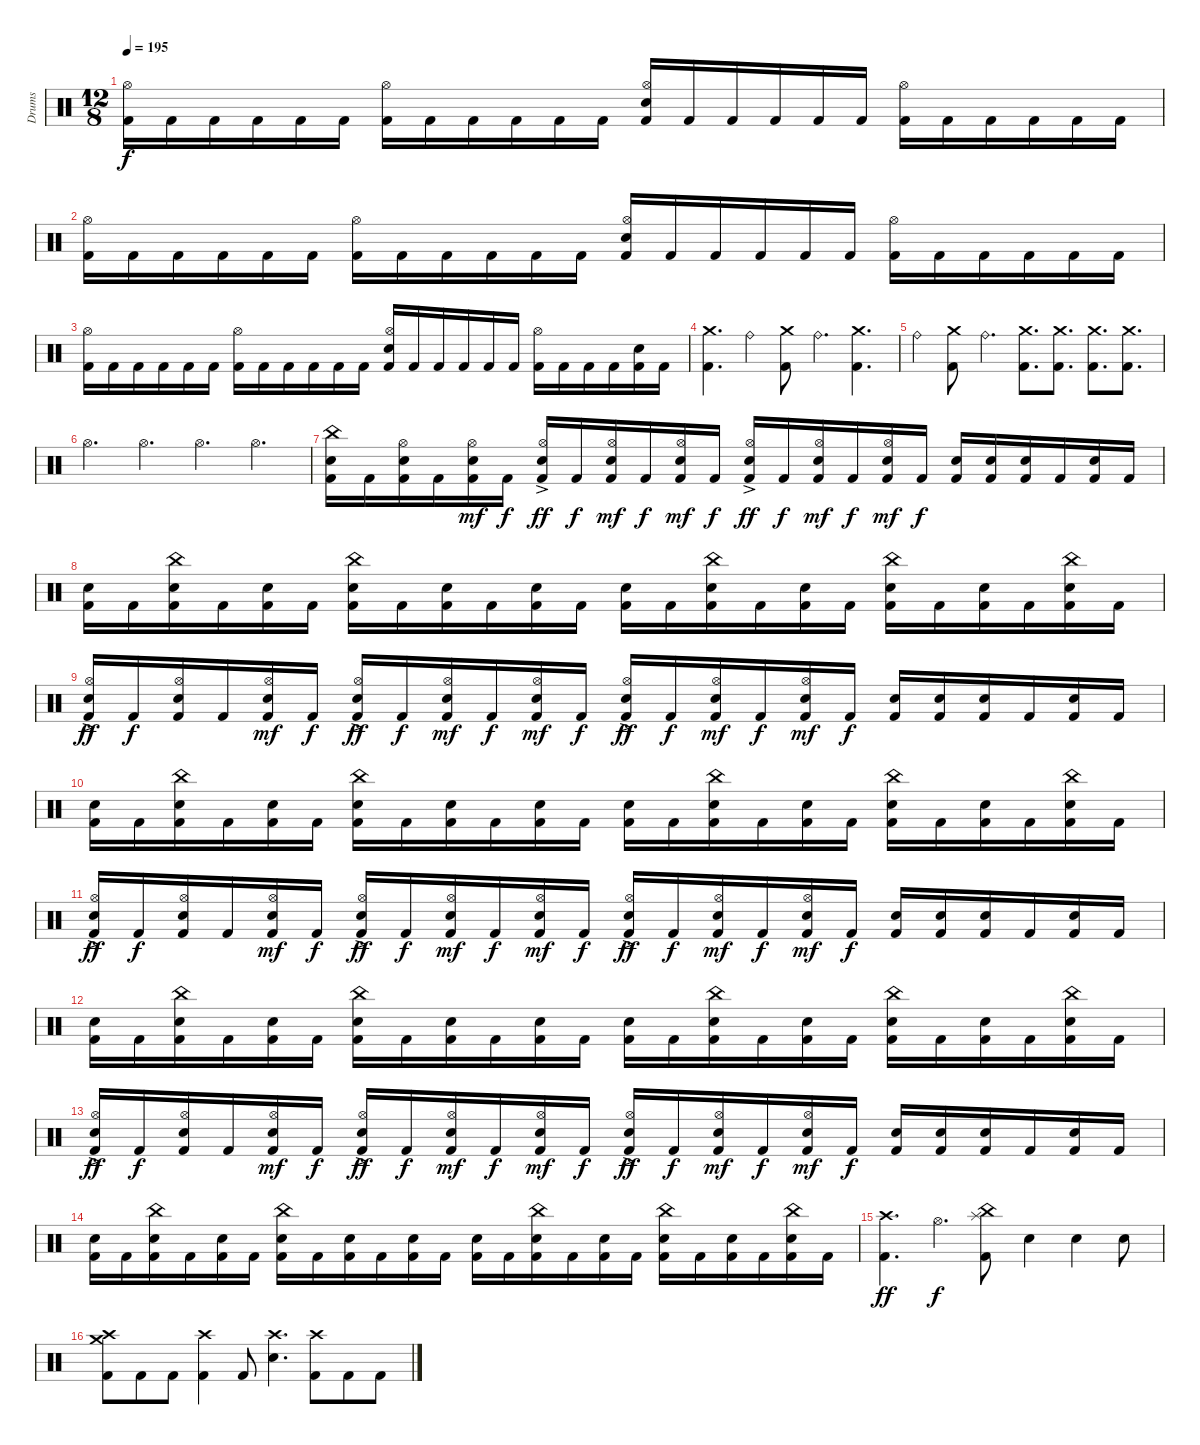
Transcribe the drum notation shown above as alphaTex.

\track ("Drums" "Drums") {instrument percussion}
\staff {score}
\articulation defaults
\ts (12 8)
\tempo 195
\clef neutral
\ks c
("Kick (hit) 2" "Hi-Hat (open)").16{dy f} "Kick (hit) 2".16 "Kick (hit) 2".16 "Kick (hit) 2".16 "Kick (hit) 2".16 "Kick (hit) 2".16 ("Kick (hit) 2" "Hi-Hat (open)").16 "Kick (hit) 2".16 "Kick (hit) 2".16 "Kick (hit) 2".16 "Kick (hit) 2".16 "Kick (hit) 2".16 ("Kick (hit) 2" "Electric Snare (hit)" "Hi-Hat (open)").16 "Kick (hit) 2".16 "Kick (hit) 2".16 "Kick (hit) 2".16 "Kick (hit) 2".16 "Kick (hit) 2".16 ("Kick (hit) 2" "Hi-Hat (open)").16 "Kick (hit) 2".16 "Kick (hit) 2".16 "Kick (hit) 2".16 "Kick (hit) 2".16 "Kick (hit) 2".16 |
("Kick (hit) 2" "Hi-Hat (open)").16 "Kick (hit) 2".16 "Kick (hit) 2".16 "Kick (hit) 2".16 "Kick (hit) 2".16 "Kick (hit) 2".16 ("Kick (hit) 2" "Hi-Hat (open)").16 "Kick (hit) 2".16 "Kick (hit) 2".16 "Kick (hit) 2".16 "Kick (hit) 2".16 "Kick (hit) 2".16 ("Kick (hit) 2" "Electric Snare (hit)" "Hi-Hat (open)").16 "Kick (hit) 2".16 "Kick (hit) 2".16 "Kick (hit) 2".16 "Kick (hit) 2".16 "Kick (hit) 2".16 ("Kick (hit) 2" "Hi-Hat (open)").16 "Kick (hit) 2".16 "Kick (hit) 2".16 "Kick (hit) 2".16 "Kick (hit) 2".16 "Kick (hit) 2".16 |
("Kick (hit) 2" "Hi-Hat (open)").16 "Kick (hit) 2".16 "Kick (hit) 2".16 "Kick (hit) 2".16 "Kick (hit) 2".16 "Kick (hit) 2".16 ("Kick (hit) 2" "Hi-Hat (open)").16 "Kick (hit) 2".16 "Kick (hit) 2".16 "Kick (hit) 2".16 "Kick (hit) 2".16 "Kick (hit) 2".16 ("Kick (hit) 2" "Electric Snare (hit)" "Hi-Hat (open)").16 "Kick (hit) 2".16 "Kick (hit) 2".16 "Kick (hit) 2".16 "Kick (hit) 2".16 "Kick (hit) 2".16 ("Kick (hit) 2" "Hi-Hat (open)").16 "Kick (hit) 2".16 "Kick (hit) 2".16 "Kick (hit) 2".16 ("Kick (hit) 2" "Electric Snare (hit)").16 "Kick (hit) 2".16 |
("Kick (hit) 2" "Crash medium (hit)").4{d} "Ride (bell)".4 ("Kick (hit) 2" "Crash medium (hit)").8 "Ride (bell)".4{d} ("Kick (hit) 2" "Crash medium (hit)").4{d} |
"Ride (bell)".4 ("Kick (hit) 2" "Crash medium (hit)").8 "Ride (bell)".4{d} ("Kick (hit) 2" "Crash medium (hit)").8{d} ("Kick (hit) 2" "Crash medium (hit)").8{d} ("Kick (hit) 2" "Crash medium (hit)").8{d} ("Kick (hit) 2" "Crash medium (hit)").8{d} |
"Hi-Hat (open)".4{d} "Hi-Hat (open)".4{d} "Hi-Hat (open)".4{d} "Hi-Hat (open)".4{d} |
("Kick (hit) 2" "Electric Snare (hit)" "China (hit)").16 "Kick (hit) 2".16 ("Kick (hit) 2" "Electric Snare (hit)" "Hi-Hat (open)").16 "Kick (hit) 2".16 ("Kick (hit) 2" "Electric Snare (hit)" "Hi-Hat (open)").16{dy mf} "Kick (hit) 2".16{dy f} ("Kick (hit) 2" "Electric Snare (hit)" "Hi-Hat (open)"{ac}).16{dy ff} "Kick (hit) 2".16{dy f} ("Kick (hit) 2" "Electric Snare (hit)" "Hi-Hat (open)").16{dy mf} "Kick (hit) 2".16{dy f} ("Kick (hit) 2" "Electric Snare (hit)" "Hi-Hat (open)").16{dy mf} "Kick (hit) 2".16{dy f} ("Kick (hit) 2" "Electric Snare (hit)" "Hi-Hat (open)"{ac}).16{dy ff} "Kick (hit) 2".16{dy f} ("Kick (hit) 2" "Electric Snare (hit)" "Hi-Hat (open)").16{dy mf} "Kick (hit) 2".16{dy f} ("Kick (hit) 2" "Electric Snare (hit)" "Hi-Hat (open)").16{dy mf} "Kick (hit) 2".16{dy f} ("Kick (hit) 2" "Electric Snare (hit)").16 ("Kick (hit) 2" "Electric Snare (hit)").16 ("Kick (hit) 2" "Electric Snare (hit)").16 "Kick (hit) 2".16 ("Kick (hit) 2" "Electric Snare (hit)").16 "Kick (hit) 2".16 |
("Kick (hit) 2" "Electric Snare (hit)").16 "Kick (hit) 2".16 ("Kick (hit) 2" "Electric Snare (hit)" "China (hit)").16 "Kick (hit) 2".16 ("Kick (hit) 2" "Electric Snare (hit)").16 "Kick (hit) 2".16 ("Kick (hit) 2" "Electric Snare (hit)" "China (hit)").16 "Kick (hit) 2".16 ("Kick (hit) 2" "Electric Snare (hit)").16 "Kick (hit) 2".16 ("Kick (hit) 2" "Electric Snare (hit)").16 "Kick (hit) 2".16 ("Kick (hit) 2" "Electric Snare (hit)").16 "Kick (hit) 2".16 ("Kick (hit) 2" "Electric Snare (hit)" "China (hit)").16 "Kick (hit) 2".16 ("Kick (hit) 2" "Electric Snare (hit)").16 "Kick (hit) 2".16 ("Kick (hit) 2" "Electric Snare (hit)" "China (hit)").16 "Kick (hit) 2".16 ("Kick (hit) 2" "Electric Snare (hit)").16 "Kick (hit) 2".16 ("Kick (hit) 2" "Electric Snare (hit)" "China (hit)").16 "Kick (hit) 2".16 |
("Kick (hit) 2" "Electric Snare (hit)" "Hi-Hat (open)"{ac}).16{dy ff} "Kick (hit) 2".16{dy f} ("Kick (hit) 2" "Electric Snare (hit)" "Hi-Hat (open)").16 "Kick (hit) 2".16 ("Kick (hit) 2" "Electric Snare (hit)" "Hi-Hat (open)").16{dy mf} "Kick (hit) 2".16{dy f} ("Kick (hit) 2" "Electric Snare (hit)" "Hi-Hat (open)"{ac}).16{dy ff} "Kick (hit) 2".16{dy f} ("Kick (hit) 2" "Electric Snare (hit)" "Hi-Hat (open)").16{dy mf} "Kick (hit) 2".16{dy f} ("Kick (hit) 2" "Electric Snare (hit)" "Hi-Hat (open)").16{dy mf} "Kick (hit) 2".16{dy f} ("Kick (hit) 2" "Electric Snare (hit)" "Hi-Hat (open)"{ac}).16{dy ff} "Kick (hit) 2".16{dy f} ("Kick (hit) 2" "Electric Snare (hit)" "Hi-Hat (open)").16{dy mf} "Kick (hit) 2".16{dy f} ("Kick (hit) 2" "Electric Snare (hit)" "Hi-Hat (open)").16{dy mf} "Kick (hit) 2".16{dy f} ("Kick (hit) 2" "Electric Snare (hit)").16 ("Kick (hit) 2" "Electric Snare (hit)").16 ("Kick (hit) 2" "Electric Snare (hit)").16 "Kick (hit) 2".16 ("Kick (hit) 2" "Electric Snare (hit)").16 "Kick (hit) 2".16 |
("Kick (hit) 2" "Electric Snare (hit)").16 "Kick (hit) 2".16 ("Kick (hit) 2" "Electric Snare (hit)" "China (hit)").16 "Kick (hit) 2".16 ("Kick (hit) 2" "Electric Snare (hit)").16 "Kick (hit) 2".16 ("Kick (hit) 2" "Electric Snare (hit)" "China (hit)").16 "Kick (hit) 2".16 ("Kick (hit) 2" "Electric Snare (hit)").16 "Kick (hit) 2".16 ("Kick (hit) 2" "Electric Snare (hit)").16 "Kick (hit) 2".16 ("Kick (hit) 2" "Electric Snare (hit)").16 "Kick (hit) 2".16 ("Kick (hit) 2" "Electric Snare (hit)" "China (hit)").16 "Kick (hit) 2".16 ("Kick (hit) 2" "Electric Snare (hit)").16 "Kick (hit) 2".16 ("Kick (hit) 2" "Electric Snare (hit)" "China (hit)").16 "Kick (hit) 2".16 ("Kick (hit) 2" "Electric Snare (hit)").16 "Kick (hit) 2".16 ("Kick (hit) 2" "Electric Snare (hit)" "China (hit)").16 "Kick (hit) 2".16 |
("Kick (hit) 2" "Electric Snare (hit)" "Hi-Hat (open)"{ac}).16{dy ff} "Kick (hit) 2".16{dy f} ("Kick (hit) 2" "Electric Snare (hit)" "Hi-Hat (open)").16 "Kick (hit) 2".16 ("Kick (hit) 2" "Electric Snare (hit)" "Hi-Hat (open)").16{dy mf} "Kick (hit) 2".16{dy f} ("Kick (hit) 2" "Electric Snare (hit)" "Hi-Hat (open)"{ac}).16{dy ff} "Kick (hit) 2".16{dy f} ("Kick (hit) 2" "Electric Snare (hit)" "Hi-Hat (open)").16{dy mf} "Kick (hit) 2".16{dy f} ("Kick (hit) 2" "Electric Snare (hit)" "Hi-Hat (open)").16{dy mf} "Kick (hit) 2".16{dy f} ("Kick (hit) 2" "Electric Snare (hit)" "Hi-Hat (open)"{ac}).16{dy ff} "Kick (hit) 2".16{dy f} ("Kick (hit) 2" "Electric Snare (hit)" "Hi-Hat (open)").16{dy mf} "Kick (hit) 2".16{dy f} ("Kick (hit) 2" "Electric Snare (hit)" "Hi-Hat (open)").16{dy mf} "Kick (hit) 2".16{dy f} ("Kick (hit) 2" "Electric Snare (hit)").16 ("Kick (hit) 2" "Electric Snare (hit)").16 ("Kick (hit) 2" "Electric Snare (hit)").16 "Kick (hit) 2".16 ("Kick (hit) 2" "Electric Snare (hit)").16 "Kick (hit) 2".16 |
("Kick (hit) 2" "Electric Snare (hit)").16 "Kick (hit) 2".16 ("Kick (hit) 2" "Electric Snare (hit)" "China (hit)").16 "Kick (hit) 2".16 ("Kick (hit) 2" "Electric Snare (hit)").16 "Kick (hit) 2".16 ("Kick (hit) 2" "Electric Snare (hit)" "China (hit)").16 "Kick (hit) 2".16 ("Kick (hit) 2" "Electric Snare (hit)").16 "Kick (hit) 2".16 ("Kick (hit) 2" "Electric Snare (hit)").16 "Kick (hit) 2".16 ("Kick (hit) 2" "Electric Snare (hit)").16 "Kick (hit) 2".16 ("Kick (hit) 2" "Electric Snare (hit)" "China (hit)").16 "Kick (hit) 2".16 ("Kick (hit) 2" "Electric Snare (hit)").16 "Kick (hit) 2".16 ("Kick (hit) 2" "Electric Snare (hit)" "China (hit)").16 "Kick (hit) 2".16 ("Kick (hit) 2" "Electric Snare (hit)").16 "Kick (hit) 2".16 ("Kick (hit) 2" "Electric Snare (hit)" "China (hit)").16 "Kick (hit) 2".16 |
("Kick (hit) 2" "Electric Snare (hit)" "Hi-Hat (open)"{ac}).16{dy ff} "Kick (hit) 2".16{dy f} ("Kick (hit) 2" "Electric Snare (hit)" "Hi-Hat (open)").16 "Kick (hit) 2".16 ("Kick (hit) 2" "Electric Snare (hit)" "Hi-Hat (open)").16{dy mf} "Kick (hit) 2".16{dy f} ("Kick (hit) 2" "Electric Snare (hit)" "Hi-Hat (open)"{ac}).16{dy ff} "Kick (hit) 2".16{dy f} ("Kick (hit) 2" "Electric Snare (hit)" "Hi-Hat (open)").16{dy mf} "Kick (hit) 2".16{dy f} ("Kick (hit) 2" "Electric Snare (hit)" "Hi-Hat (open)").16{dy mf} "Kick (hit) 2".16{dy f} ("Kick (hit) 2" "Electric Snare (hit)" "Hi-Hat (open)"{ac}).16{dy ff} "Kick (hit) 2".16{dy f} ("Kick (hit) 2" "Electric Snare (hit)" "Hi-Hat (open)").16{dy mf} "Kick (hit) 2".16{dy f} ("Kick (hit) 2" "Electric Snare (hit)" "Hi-Hat (open)").16{dy mf} "Kick (hit) 2".16{dy f} ("Kick (hit) 2" "Electric Snare (hit)").16 ("Kick (hit) 2" "Electric Snare (hit)").16 ("Kick (hit) 2" "Electric Snare (hit)").16 "Kick (hit) 2".16 ("Kick (hit) 2" "Electric Snare (hit)").16 "Kick (hit) 2".16 |
("Kick (hit) 2" "Electric Snare (hit)").16 "Kick (hit) 2".16 ("Kick (hit) 2" "Electric Snare (hit)" "China (hit)").16 "Kick (hit) 2".16 ("Kick (hit) 2" "Electric Snare (hit)").16 "Kick (hit) 2".16 ("Kick (hit) 2" "Electric Snare (hit)" "China (hit)").16 "Kick (hit) 2".16 ("Kick (hit) 2" "Electric Snare (hit)").16 "Kick (hit) 2".16 ("Kick (hit) 2" "Electric Snare (hit)").16 "Kick (hit) 2".16 ("Kick (hit) 2" "Electric Snare (hit)").16 "Kick (hit) 2".16 ("Kick (hit) 2" "Electric Snare (hit)" "China (hit)").16 "Kick (hit) 2".16 ("Kick (hit) 2" "Electric Snare (hit)").16 "Kick (hit) 2".16 ("Kick (hit) 2" "Electric Snare (hit)" "China (hit)").16 "Kick (hit) 2".16 ("Kick (hit) 2" "Electric Snare (hit)").16 "Kick (hit) 2".16 ("Kick (hit) 2" "Electric Snare (hit)" "China (hit)").16 "Kick (hit) 2".16 |
("Kick (hit) 2" "Crash high (hit)").4{d dy ff} "Hi-Hat (open)".4{d dy f} ("Kick (hit) 2" "China (hit)" "Splash (hit)").8 "Electric Snare (hit)".4 "Electric Snare (hit)".4 "Electric Snare (hit)".8 |
("Kick (hit) 2" "Crash high (hit)" "Crash medium (hit)").8 "Kick (hit) 2".8 "Kick (hit) 2".8 ("Kick (hit) 2" "Crash high (hit)").4 "Kick (hit) 2".8 ("Electric Snare (hit)" "Crash high (hit)").4{d} ("Kick (hit) 2" "Crash high (hit)").8 "Kick (hit) 2".8 "Kick (hit) 2".8
